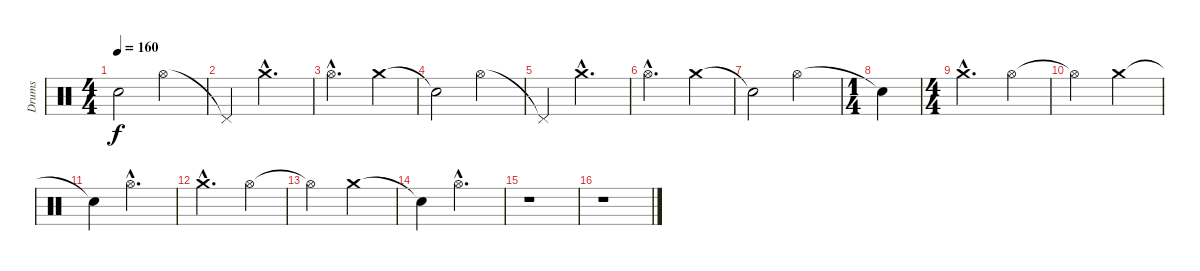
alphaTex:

\track ("Drums" "Drums") {instrument percussion}
\staff {score}
\articulation defaults
\ts (4 4)
\tempo 160
\clef neutral
\ks c "Snare (hit)"{t}.2{dy f} "Hi-Hat (open)".2
|
"Pedal Hi-Hat (hit)"{t}.4 "Crash medium (hit)"{hac}.2{d} |
"Hi-Hat (open)"{hac}.2{d} "Crash medium (hit)".4 |
"Snare (hit)"{t}.2 "Hi-Hat (open)".2 |
"Pedal Hi-Hat (hit)"{t}.4 "Crash medium (hit)"{hac}.2{d} |
"Hi-Hat (open)"{hac}.2{d} "Crash medium (hit)".4 |
"Snare (hit)"{t}.2 "Hi-Hat (open)".2 |
\ts (1 4)
"Snare (hit)"{t}.4 |
\ts (4 4)
"Crash medium (hit)"{hac}.2{d} "Hi-Hat (open)".4 |
"Hi-Hat (open)"{t}.2 "Crash medium (hit)".2 |
"Snare (hit)"{t}.4 "Hi-Hat (open)"{hac}.2{d} |
"Crash medium (hit)"{hac}.2{d} "Hi-Hat (open)".4 |
"Hi-Hat (open)"{t}.2 "Crash medium (hit)".2 |
"Snare (hit)"{t}.4 "Hi-Hat (open)"{hac}.2{d} |
r.1 |
r.1
